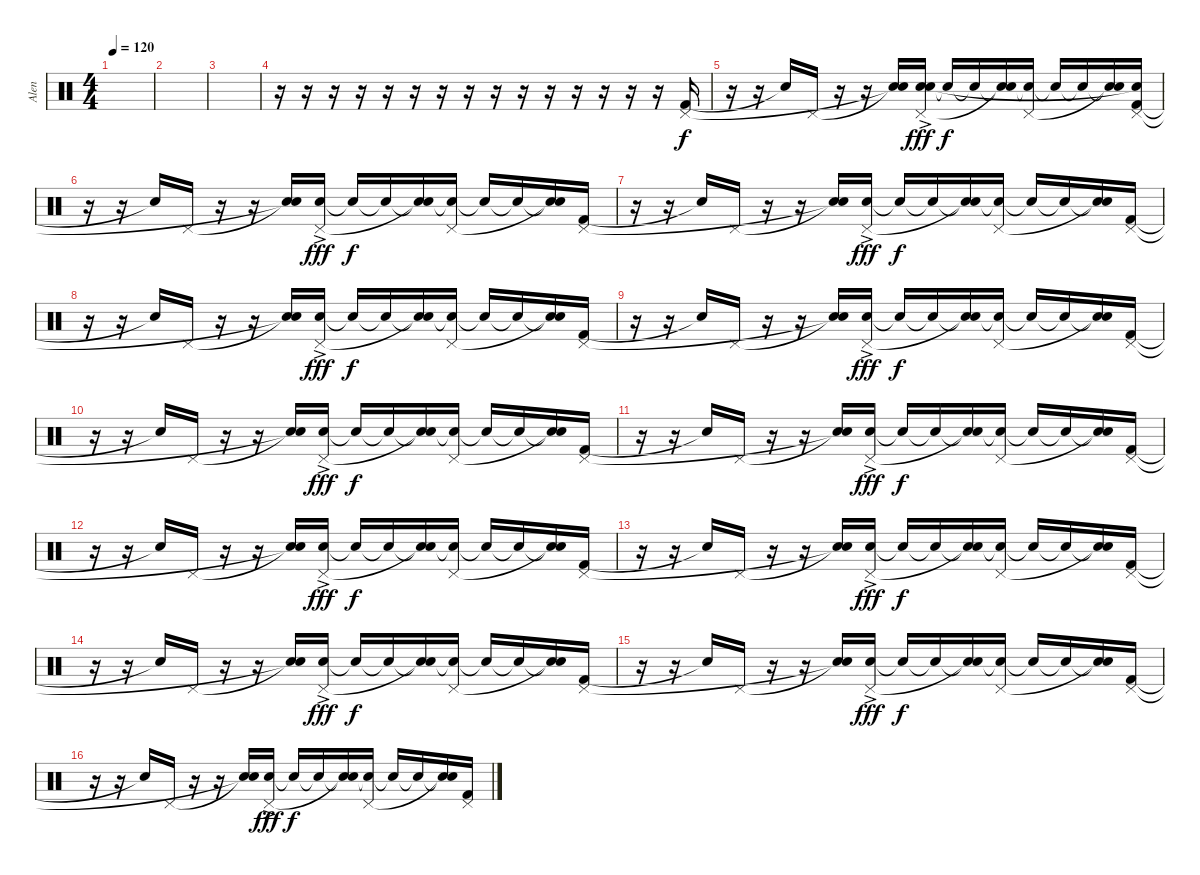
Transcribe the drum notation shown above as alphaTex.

\track ("Alen" "Alen") {instrument percussion}
\staff {score}
\articulation defaults
\ts (4 4)
\tempo 120
\clef neutral
\ks c
|
|
|
r.16 r.16 r.16 r.16 r.16 r.16 r.16 r.16 r.16 r.16 r.16 r.16 r.16 r.16 r.16 ("Kick (hit) 2" "Pedal Hi-Hat (hit)").16 |
r.16 r.16 "Snare (hit)"{t}.16 "Pedal Hi-Hat (hit)".16 r.16 r.16 ("Snare (hit)"{t} "Snare (hit)"{t}).16 ("Snare (hit) 2"{ac} "Pedal Hi-Hat (hit)" "Snare (hit) 2").16{dy fff} "Snare (hit)"{t}.16{dy f} "Snare (hit)"{t}.16 ("Snare (hit)"{t} "Snare (hit)"{t}).16 ("Snare (hit)"{t} "Pedal Hi-Hat (hit)").16 "Snare (hit)"{t}.16 "Snare (hit)"{t}.16 ("Snare (hit)"{t} "Snare (hit)"{t}).16 ("Kick (hit) 2" "Pedal Hi-Hat (hit)" "Snare (hit)"{t}).16 |
r.16 r.16 "Snare (hit)"{t}.16 "Pedal Hi-Hat (hit)".16 r.16 r.16 ("Snare (hit)"{t} "Snare (hit)"{t}).16 ("Snare (hit) 2"{ac} "Pedal Hi-Hat (hit)").16{dy fff} "Snare (hit)"{t}.16{dy f} "Snare (hit)"{t}.16 ("Snare (hit)"{t} "Snare (hit)"{t}).16 ("Snare (hit)"{t} "Pedal Hi-Hat (hit)").16 "Snare (hit)"{t}.16 "Snare (hit)"{t}.16 ("Snare (hit)"{t} "Snare (hit)"{t}).16 ("Kick (hit) 2" "Pedal Hi-Hat (hit)").16 |
r.16 r.16 "Snare (hit)"{t}.16 "Pedal Hi-Hat (hit)".16 r.16 r.16 ("Snare (hit)"{t} "Snare (hit)"{t}).16 ("Snare (hit) 2"{ac} "Pedal Hi-Hat (hit)").16{dy fff} "Snare (hit)"{t}.16{dy f} "Snare (hit)"{t}.16 ("Snare (hit)"{t} "Snare (hit)"{t}).16 ("Snare (hit)"{t} "Pedal Hi-Hat (hit)").16 "Snare (hit)"{t}.16 "Snare (hit)"{t}.16 ("Snare (hit)"{t} "Snare (hit)"{t}).16 ("Kick (hit) 2" "Pedal Hi-Hat (hit)").16 |
r.16 r.16 "Snare (hit)"{t}.16 "Pedal Hi-Hat (hit)".16 r.16 r.16 ("Snare (hit)"{t} "Snare (hit)"{t}).16 ("Snare (hit) 2"{ac} "Pedal Hi-Hat (hit)").16{dy fff} "Snare (hit)"{t}.16{dy f} "Snare (hit)"{t}.16 ("Snare (hit)"{t} "Snare (hit)"{t}).16 ("Snare (hit)"{t} "Pedal Hi-Hat (hit)").16 "Snare (hit)"{t}.16 "Snare (hit)"{t}.16 ("Snare (hit)"{t} "Snare (hit)"{t}).16 ("Kick (hit) 2" "Pedal Hi-Hat (hit)").16 |
r.16 r.16 "Snare (hit)"{t}.16 "Pedal Hi-Hat (hit)".16 r.16 r.16 ("Snare (hit)"{t} "Snare (hit)"{t}).16 ("Snare (hit) 2"{ac} "Pedal Hi-Hat (hit)").16{dy fff} "Snare (hit)"{t}.16{dy f} "Snare (hit)"{t}.16 ("Snare (hit)"{t} "Snare (hit)"{t}).16 ("Snare (hit)"{t} "Pedal Hi-Hat (hit)").16 "Snare (hit)"{t}.16 "Snare (hit)"{t}.16 ("Snare (hit)"{t} "Snare (hit)"{t}).16 ("Kick (hit) 2" "Pedal Hi-Hat (hit)").16 |
r.16 r.16 "Snare (hit)"{t}.16 "Pedal Hi-Hat (hit)".16 r.16 r.16 ("Snare (hit)"{t} "Snare (hit)"{t}).16 ("Snare (hit) 2"{ac} "Pedal Hi-Hat (hit)").16{dy fff} "Snare (hit)"{t}.16{dy f} "Snare (hit)"{t}.16 ("Snare (hit)"{t} "Snare (hit)"{t}).16 ("Snare (hit)"{t} "Pedal Hi-Hat (hit)").16 "Snare (hit)"{t}.16 "Snare (hit)"{t}.16 ("Snare (hit)"{t} "Snare (hit)"{t}).16 ("Kick (hit) 2" "Pedal Hi-Hat (hit)").16 |
r.16 r.16 "Snare (hit)"{t}.16 "Pedal Hi-Hat (hit)".16 r.16 r.16 ("Snare (hit)"{t} "Snare (hit)"{t}).16 ("Snare (hit) 2"{ac} "Pedal Hi-Hat (hit)").16{dy fff} "Snare (hit)"{t}.16{dy f} "Snare (hit)"{t}.16 ("Snare (hit)"{t} "Snare (hit)"{t}).16 ("Snare (hit)"{t} "Pedal Hi-Hat (hit)").16 "Snare (hit)"{t}.16 "Snare (hit)"{t}.16 ("Snare (hit)"{t} "Snare (hit)"{t}).16 ("Kick (hit) 2" "Pedal Hi-Hat (hit)").16 |
r.16 r.16 "Snare (hit)"{t}.16 "Pedal Hi-Hat (hit)".16 r.16 r.16 ("Snare (hit)"{t} "Snare (hit)"{t}).16 ("Snare (hit) 2"{ac} "Pedal Hi-Hat (hit)").16{dy fff} "Snare (hit)"{t}.16{dy f} "Snare (hit)"{t}.16 ("Snare (hit)"{t} "Snare (hit)"{t}).16 ("Snare (hit)"{t} "Pedal Hi-Hat (hit)").16 "Snare (hit)"{t}.16 "Snare (hit)"{t}.16 ("Snare (hit)"{t} "Snare (hit)"{t}).16 ("Kick (hit) 2" "Pedal Hi-Hat (hit)").16 |
r.16 r.16 "Snare (hit)"{t}.16 "Pedal Hi-Hat (hit)".16 r.16 r.16 ("Snare (hit)"{t} "Snare (hit)"{t}).16 ("Snare (hit) 2"{ac} "Pedal Hi-Hat (hit)").16{dy fff} "Snare (hit)"{t}.16{dy f} "Snare (hit)"{t}.16 ("Snare (hit)"{t} "Snare (hit)"{t}).16 ("Snare (hit)"{t} "Pedal Hi-Hat (hit)").16 "Snare (hit)"{t}.16 "Snare (hit)"{t}.16 ("Snare (hit)"{t} "Snare (hit)"{t}).16 ("Kick (hit) 2" "Pedal Hi-Hat (hit)").16 |
r.16 r.16 "Snare (hit)"{t}.16 "Pedal Hi-Hat (hit)".16 r.16 r.16 ("Snare (hit)"{t} "Snare (hit)"{t}).16 ("Snare (hit) 2"{ac} "Pedal Hi-Hat (hit)").16{dy fff} "Snare (hit)"{t}.16{dy f} "Snare (hit)"{t}.16 ("Snare (hit)"{t} "Snare (hit)"{t}).16 ("Snare (hit)"{t} "Pedal Hi-Hat (hit)").16 "Snare (hit)"{t}.16 "Snare (hit)"{t}.16 ("Snare (hit)"{t} "Snare (hit)"{t}).16 ("Kick (hit) 2" "Pedal Hi-Hat (hit)").16 |
r.16 r.16 "Snare (hit)"{t}.16 "Pedal Hi-Hat (hit)".16 r.16 r.16 ("Snare (hit)"{t} "Snare (hit)"{t}).16 ("Snare (hit) 2"{ac} "Pedal Hi-Hat (hit)").16{dy fff} "Snare (hit)"{t}.16{dy f} "Snare (hit)"{t}.16 ("Snare (hit)"{t} "Snare (hit)"{t}).16 ("Snare (hit)"{t} "Pedal Hi-Hat (hit)").16 "Snare (hit)"{t}.16 "Snare (hit)"{t}.16 ("Snare (hit)"{t} "Snare (hit)"{t}).16 ("Kick (hit) 2" "Pedal Hi-Hat (hit)").16 |
r.16 r.16 "Snare (hit)"{t}.16 "Pedal Hi-Hat (hit)".16 r.16 r.16 ("Snare (hit)"{t} "Snare (hit)"{t}).16 ("Snare (hit) 2"{ac} "Pedal Hi-Hat (hit)").16{dy fff} "Snare (hit)"{t}.16{dy f} "Snare (hit)"{t}.16 ("Snare (hit)"{t} "Snare (hit)"{t}).16 ("Snare (hit)"{t} "Pedal Hi-Hat (hit)").16 "Snare (hit)"{t}.16 "Snare (hit)"{t}.16 ("Snare (hit)"{t} "Snare (hit)"{t}).16 ("Kick (hit) 2" "Pedal Hi-Hat (hit)").16
